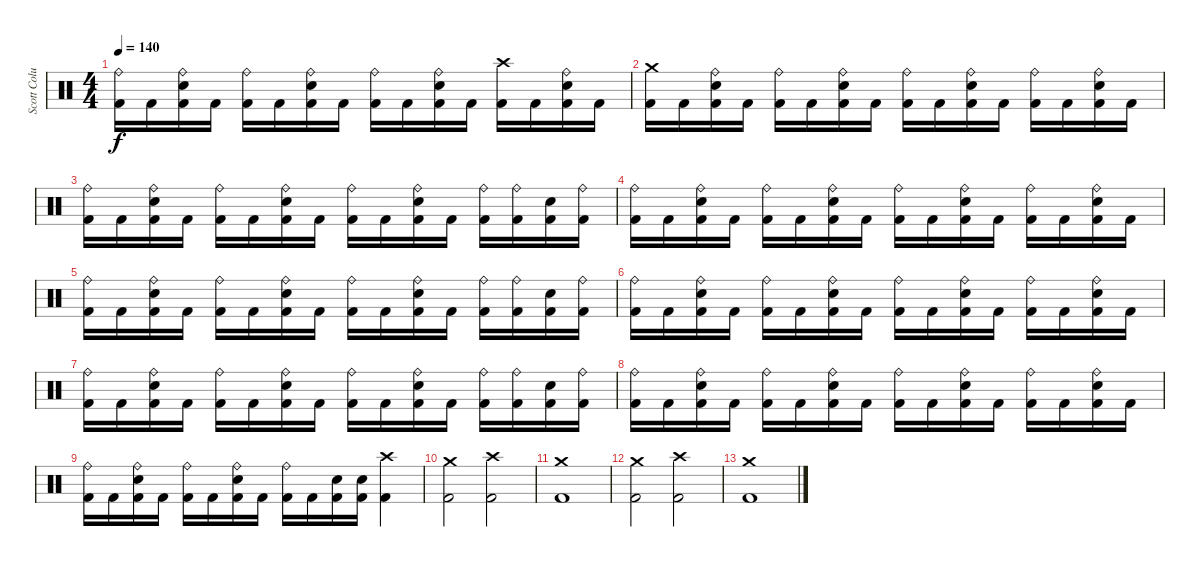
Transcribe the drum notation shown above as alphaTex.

\track ("Scott Columbus(Drums)" "Scott Colu") {instrument percussion}
\staff {score}
\articulation defaults
\ts (4 4)
\tempo 140
\clef neutral
\ks c
("Ride (bell)" "Kick (hit) 2").16{dy f} "Kick (hit) 2".16 ("Ride (bell)" "Snare (hit) 2" "Kick (hit) 2").16 "Kick (hit) 2".16 ("Ride (bell)" "Kick (hit) 2").16 "Kick (hit) 2".16 ("Ride (bell)" "Snare (hit) 2" "Kick (hit) 2").16 "Kick (hit) 2".16 ("Ride (bell)" "Kick (hit) 2").16 "Kick (hit) 2".16 ("Ride (bell)" "Snare (hit) 2" "Kick (hit) 2").16 "Kick (hit) 2".16 ("Crash high (hit)" "Kick (hit) 2").16 "Kick (hit) 2".16 ("Ride (bell)" "Snare (hit) 2" "Kick (hit) 2").16 "Kick (hit) 2".16 |
("Crash medium (hit)" "Kick (hit) 2").16 "Kick (hit) 2".16 ("Ride (bell)" "Snare (hit) 2" "Kick (hit) 2").16 "Kick (hit) 2".16 ("Ride (bell)" "Kick (hit) 2").16 "Kick (hit) 2".16 ("Ride (bell)" "Snare (hit) 2" "Kick (hit) 2").16 "Kick (hit) 2".16 ("Ride (bell)" "Kick (hit) 2").16 "Kick (hit) 2".16 ("Ride (bell)" "Snare (hit) 2" "Kick (hit) 2").16 "Kick (hit) 2".16 ("Ride (bell)" "Kick (hit) 2").16 "Kick (hit) 2".16 ("Ride (bell)" "Snare (hit) 2" "Kick (hit) 2").16 "Kick (hit) 2".16 |
("Ride (bell)" "Kick (hit) 2").16 "Kick (hit) 2".16 ("Ride (bell)" "Snare (hit) 2" "Kick (hit) 2").16 "Kick (hit) 2".16 ("Ride (bell)" "Kick (hit) 2").16 "Kick (hit) 2".16 ("Ride (bell)" "Snare (hit) 2" "Kick (hit) 2").16 "Kick (hit) 2".16 ("Ride (bell)" "Kick (hit) 2").16 "Kick (hit) 2".16 ("Ride (bell)" "Snare (hit) 2" "Kick (hit) 2").16 "Kick (hit) 2".16 ("Ride (bell)" "Kick (hit) 2").16 ("Ride (bell)" "Kick (hit) 2").16 ("Snare (hit) 2" "Kick (hit) 2").16 ("Ride (bell)" "Kick (hit) 2").16 |
("Ride (bell)" "Kick (hit) 2").16 "Kick (hit) 2".16 ("Ride (bell)" "Snare (hit) 2" "Kick (hit) 2").16 "Kick (hit) 2".16 ("Ride (bell)" "Kick (hit) 2").16 "Kick (hit) 2".16 ("Ride (bell)" "Snare (hit) 2" "Kick (hit) 2").16 "Kick (hit) 2".16 ("Ride (bell)" "Kick (hit) 2").16 "Kick (hit) 2".16 ("Ride (bell)" "Snare (hit) 2" "Kick (hit) 2").16 "Kick (hit) 2".16 ("Ride (bell)" "Kick (hit) 2").16 "Kick (hit) 2".16 ("Ride (bell)" "Snare (hit) 2" "Kick (hit) 2").16 "Kick (hit) 2".16 |
("Ride (bell)" "Kick (hit) 2").16 "Kick (hit) 2".16 ("Ride (bell)" "Snare (hit) 2" "Kick (hit) 2").16 "Kick (hit) 2".16 ("Ride (bell)" "Kick (hit) 2").16 "Kick (hit) 2".16 ("Ride (bell)" "Snare (hit) 2" "Kick (hit) 2").16 "Kick (hit) 2".16 ("Ride (bell)" "Kick (hit) 2").16 "Kick (hit) 2".16 ("Ride (bell)" "Snare (hit) 2" "Kick (hit) 2").16 "Kick (hit) 2".16 ("Ride (bell)" "Kick (hit) 2").16 ("Ride (bell)" "Kick (hit) 2").16 ("Snare (hit) 2" "Kick (hit) 2").16 ("Ride (bell)" "Kick (hit) 2").16 |
("Ride (bell)" "Kick (hit) 2").16 "Kick (hit) 2".16 ("Ride (bell)" "Snare (hit) 2" "Kick (hit) 2").16 "Kick (hit) 2".16 ("Ride (bell)" "Kick (hit) 2").16 "Kick (hit) 2".16 ("Ride (bell)" "Snare (hit) 2" "Kick (hit) 2").16 "Kick (hit) 2".16 ("Ride (bell)" "Kick (hit) 2").16 "Kick (hit) 2".16 ("Ride (bell)" "Snare (hit) 2" "Kick (hit) 2").16 "Kick (hit) 2".16 ("Ride (bell)" "Kick (hit) 2").16 "Kick (hit) 2".16 ("Ride (bell)" "Snare (hit) 2" "Kick (hit) 2").16 "Kick (hit) 2".16 |
("Ride (bell)" "Kick (hit) 2").16 "Kick (hit) 2".16 ("Ride (bell)" "Snare (hit) 2" "Kick (hit) 2").16 "Kick (hit) 2".16 ("Ride (bell)" "Kick (hit) 2").16 "Kick (hit) 2".16 ("Ride (bell)" "Snare (hit) 2" "Kick (hit) 2").16 "Kick (hit) 2".16 ("Ride (bell)" "Kick (hit) 2").16 "Kick (hit) 2".16 ("Ride (bell)" "Snare (hit) 2" "Kick (hit) 2").16 "Kick (hit) 2".16 ("Ride (bell)" "Kick (hit) 2").16 ("Ride (bell)" "Kick (hit) 2").16 ("Snare (hit) 2" "Kick (hit) 2").16 ("Ride (bell)" "Kick (hit) 2").16 |
("Ride (bell)" "Kick (hit) 2").16 "Kick (hit) 2".16 ("Ride (bell)" "Snare (hit) 2" "Kick (hit) 2").16 "Kick (hit) 2".16 ("Ride (bell)" "Kick (hit) 2").16 "Kick (hit) 2".16 ("Ride (bell)" "Snare (hit) 2" "Kick (hit) 2").16 "Kick (hit) 2".16 ("Ride (bell)" "Kick (hit) 2").16 "Kick (hit) 2".16 ("Ride (bell)" "Snare (hit) 2" "Kick (hit) 2").16 "Kick (hit) 2".16 ("Ride (bell)" "Kick (hit) 2").16 "Kick (hit) 2".16 ("Ride (bell)" "Snare (hit) 2" "Kick (hit) 2").16 "Kick (hit) 2".16 |
("Ride (bell)" "Kick (hit) 2").16 "Kick (hit) 2".16 ("Ride (bell)" "Snare (hit) 2" "Kick (hit) 2").16 "Kick (hit) 2".16 ("Ride (bell)" "Kick (hit) 2").16 "Kick (hit) 2".16 ("Ride (bell)" "Snare (hit) 2" "Kick (hit) 2").16 "Kick (hit) 2".16 ("Ride (bell)" "Kick (hit) 2").16 "Kick (hit) 2".16 ("Snare (hit) 2" "Kick (hit) 2").16 ("Snare (hit) 2" "Kick (hit) 2").16 ("Crash high (hit)" "Kick (hit) 2").4 |
("Crash medium (hit)" "Kick (hit) 2").2 ("Crash high (hit)" "Kick (hit) 2").2 |
("Crash medium (hit)" "Kick (hit) 2").1 |
("Crash medium (hit)" "Kick (hit) 2").2 ("Crash high (hit)" "Kick (hit) 2").2 |
("Crash medium (hit)" "Kick (hit) 2").1
